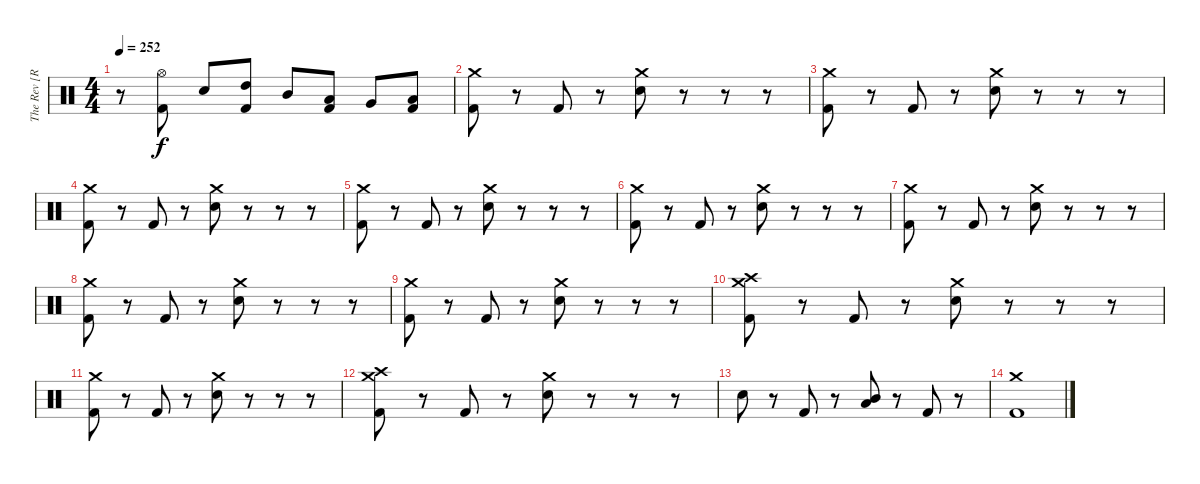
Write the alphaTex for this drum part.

\track ("The Rev [R.I.P]" "The Rev [R") {instrument percussion}
\staff {score}
\articulation defaults
\ts (4 4)
\tempo 252
\clef neutral
\ks c
r.8{dy f} ("Hi-Hat (open)" "Kick (hit) 2").8 "Electric Snare (hit)".8 ("High Tom (hit)" "Kick (hit) 2").8 "Mid Tom (hit)".8 ("Low Tom (hit)" "Kick (hit) 2").8 "Very Low Tom (hit)".8 ("Low Floor Tom (hit)" "Kick (hit) 2").8 |
("Crash medium (hit)" "Kick (hit) 2").8 r.8 "Kick (hit) 2".8 r.8 ("Crash medium (hit)" "Electric Snare (hit)").8 r.8 r.8 r.8 |
("Crash medium (hit)" "Kick (hit) 2").8 r.8 "Kick (hit) 2".8 r.8 ("Crash medium (hit)" "Electric Snare (hit)").8 r.8 r.8 r.8 |
("Crash medium (hit)" "Kick (hit) 2").8 r.8 "Kick (hit) 2".8 r.8 ("Crash medium (hit)" "Electric Snare (hit)").8 r.8 r.8 r.8 |
("Crash medium (hit)" "Kick (hit) 2").8 r.8 "Kick (hit) 2".8 r.8 ("Crash medium (hit)" "Electric Snare (hit)").8 r.8 r.8 r.8 |
("Crash medium (hit)" "Kick (hit) 2").8 r.8 "Kick (hit) 2".8 r.8 ("Crash medium (hit)" "Electric Snare (hit)").8 r.8 r.8 r.8 |
("Crash medium (hit)" "Kick (hit) 2").8 r.8 "Kick (hit) 2".8 r.8 ("Crash medium (hit)" "Electric Snare (hit)").8 r.8 r.8 r.8 |
("Crash medium (hit)" "Kick (hit) 2").8 r.8 "Kick (hit) 2".8 r.8 ("Crash medium (hit)" "Electric Snare (hit)").8 r.8 r.8 r.8 |
("Crash medium (hit)" "Kick (hit) 2").8 r.8 "Kick (hit) 2".8 r.8 ("Crash medium (hit)" "Electric Snare (hit)").8 r.8 r.8 r.8 |
("Crash high (hit)" "Crash medium (hit)" "Kick (hit) 2").8 r.8 "Kick (hit) 2".8 r.8 ("Crash medium (hit)" "Electric Snare (hit)").8 r.8 r.8 r.8 |
("Crash medium (hit)" "Kick (hit) 2").8 r.8 "Kick (hit) 2".8 r.8 ("Crash medium (hit)" "Electric Snare (hit)").8 r.8 r.8 r.8 |
("Crash medium (hit)" "Crash high (hit)" "Kick (hit) 2").8 r.8 "Kick (hit) 2".8 r.8 ("Crash medium (hit)" "Electric Snare (hit)").8 r.8 r.8 r.8 |
"Electric Snare (hit)".8 r.8 "Kick (hit) 2".8 r.8 ("Mid Tom (hit)" "Low Floor Tom (hit)").8 r.8 "Kick (hit) 2".8 r.8 |
("Crash medium (hit)" "Kick (hit) 2").1
